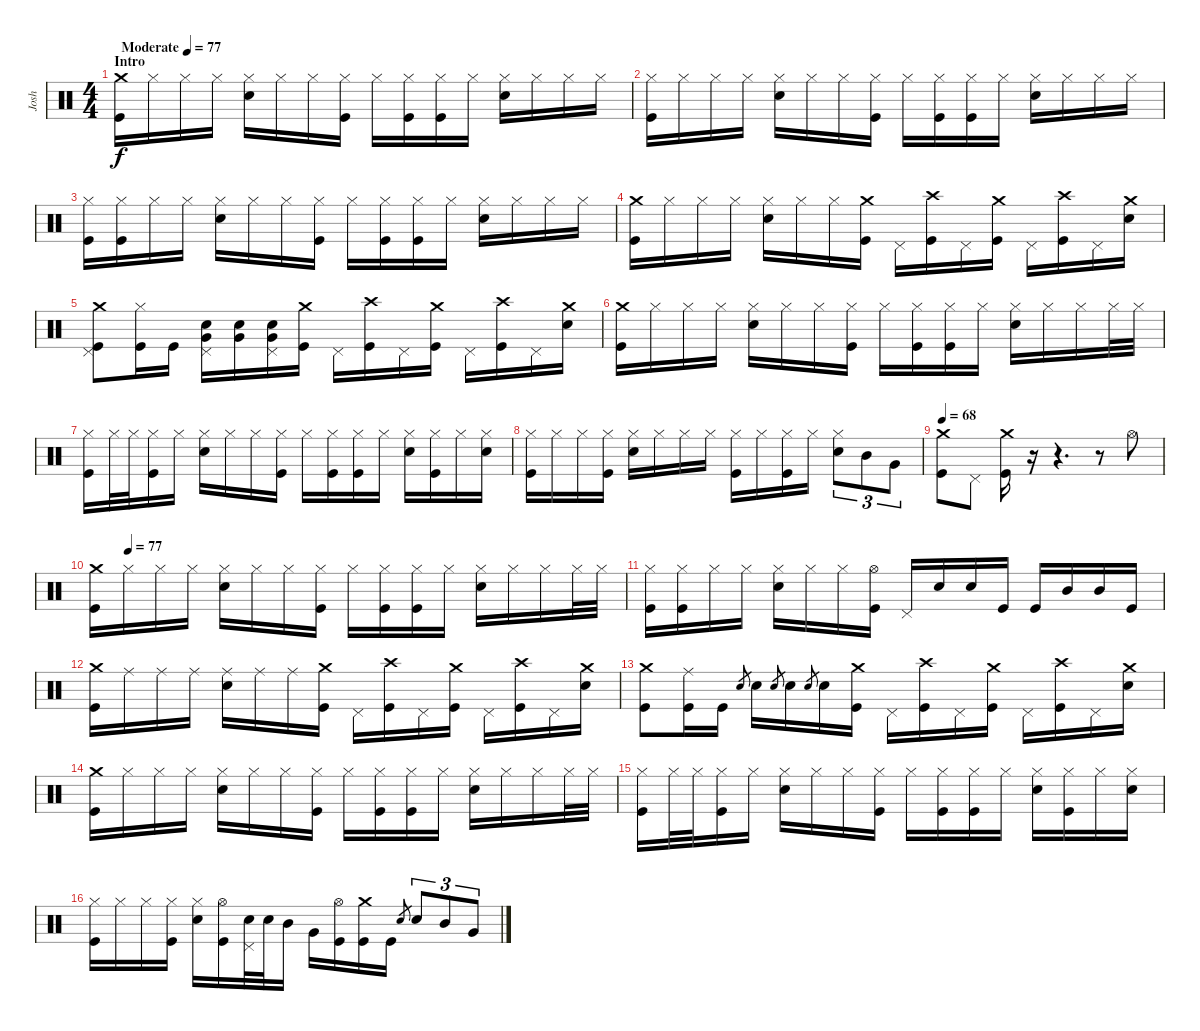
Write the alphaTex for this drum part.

\track ("Josh" "Josh") {instrument percussion}
\staff {score}
\articulation defaults
\ts (4 4)
\section ("" "Intro")
\tempo (77 "Moderate")
\clef neutral
\ks c
("Crash medium (hit)" "Kick (hit)").16{dy f} "Hi-Hat (closed)".16 "Hi-Hat (closed)".16 "Hi-Hat (closed)".16 ("Hi-Hat (closed)" "Snare (hit) 2").16 "Hi-Hat (closed)".16 "Hi-Hat (closed)".16 ("Hi-Hat (closed)" "Kick (hit)").16 "Hi-Hat (closed)".16 ("Hi-Hat (closed)" "Kick (hit)").16 ("Hi-Hat (closed)" "Kick (hit)").16 "Hi-Hat (closed)".16 ("Hi-Hat (closed)" "Snare (hit) 2").16 "Hi-Hat (closed)".16 "Hi-Hat (closed)".16 "Hi-Hat (closed)".16 |
("Hi-Hat (closed)" "Kick (hit)").16 "Hi-Hat (closed)".16 "Hi-Hat (closed)".16 "Hi-Hat (closed)".16 ("Hi-Hat (closed)" "Snare (hit) 2").16 "Hi-Hat (closed)".16 "Hi-Hat (closed)".16 ("Hi-Hat (closed)" "Kick (hit)").16 "Hi-Hat (closed)".16 ("Hi-Hat (closed)" "Kick (hit)").16 ("Hi-Hat (closed)" "Kick (hit)").16 "Hi-Hat (closed)".16 ("Hi-Hat (closed)" "Snare (hit) 2").16 "Hi-Hat (closed)".16 "Hi-Hat (closed)".16 "Hi-Hat (closed)".16 |
("Hi-Hat (closed)" "Kick (hit)").16 ("Hi-Hat (closed)" "Kick (hit)").16 "Hi-Hat (closed)".16 "Hi-Hat (closed)".16 ("Hi-Hat (closed)" "Snare (hit) 2").16 "Hi-Hat (closed)".16 "Hi-Hat (closed)".16 ("Hi-Hat (closed)" "Kick (hit)").16 "Hi-Hat (closed)".16 ("Hi-Hat (closed)" "Kick (hit)").16 ("Hi-Hat (closed)" "Kick (hit)").16 "Hi-Hat (closed)".16 ("Hi-Hat (closed)" "Snare (hit) 2").16 "Hi-Hat (closed)".16 "Hi-Hat (closed)".16 "Hi-Hat (closed)".16 |
("Crash medium (hit)" "Kick (hit)").16 "Hi-Hat (closed)".16 "Hi-Hat (closed)".16 "Hi-Hat (closed)".16 ("Hi-Hat (closed)" "Snare (hit) 2").16 "Hi-Hat (closed)".16 "Hi-Hat (closed)".16 ("Crash medium (hit)" "Kick (hit)").16 "Pedal Hi-Hat (hit)".16 ("Crash high (hit)" "Kick (hit)").16 "Pedal Hi-Hat (hit)".16 ("Crash medium (hit)" "Kick (hit)").16 "Pedal Hi-Hat (hit)".16 ("Crash high (hit)" "Kick (hit)").16 "Pedal Hi-Hat (hit)".16 ("Crash medium (hit)" "Snare (hit) 2").16 |
("Crash medium (hit)" "Kick (hit)" "Pedal Hi-Hat (hit)").8 ("Hi-Hat (closed)" "Kick (hit)").16 "Kick (hit)".16 ("Very Low Tom (hit)" "Snare (hit) 2" "Pedal Hi-Hat (hit)").16 ("Very Low Tom (hit)" "Snare (hit) 2").16 ("Very Low Tom (hit)" "Snare (hit) 2" "Pedal Hi-Hat (hit)").16 ("Crash medium (hit)" "Kick (hit)").16 "Pedal Hi-Hat (hit)".16 ("Crash high (hit)" "Kick (hit)").16 "Pedal Hi-Hat (hit)".16 ("Crash medium (hit)" "Kick (hit)").16 "Pedal Hi-Hat (hit)".16 ("Crash high (hit)" "Kick (hit)").16 "Pedal Hi-Hat (hit)".16 ("Crash medium (hit)" "Snare (hit) 2").16 |
("Crash medium (hit)" "Kick (hit)").16 "Hi-Hat (closed)".16 "Hi-Hat (closed)".16 "Hi-Hat (closed)".16 ("Hi-Hat (closed)" "Snare (hit) 2").16 "Hi-Hat (closed)".16 "Hi-Hat (closed)".16 ("Hi-Hat (closed)" "Kick (hit)").16 "Hi-Hat (closed)".16 ("Hi-Hat (closed)" "Kick (hit)").16 ("Hi-Hat (closed)" "Kick (hit)").16 "Hi-Hat (closed)".16 ("Hi-Hat (closed)" "Snare (hit) 2").16 "Hi-Hat (closed)".16 "Hi-Hat (closed)".16 "Hi-Hat (closed)".32 "Hi-Hat (closed)".32 |
("Hi-Hat (closed)" "Kick (hit)").16 "Hi-Hat (closed)".32 "Hi-Hat (closed)".32 ("Hi-Hat (closed)" "Kick (hit)").16 "Hi-Hat (closed)".16 ("Hi-Hat (closed)" "Snare (hit) 2").16 "Hi-Hat (closed)".16 "Hi-Hat (closed)".16 ("Hi-Hat (closed)" "Kick (hit)").16 "Hi-Hat (closed)".16 ("Hi-Hat (closed)" "Kick (hit)").16 ("Hi-Hat (closed)" "Kick (hit)").16 "Hi-Hat (closed)".16 ("Hi-Hat (closed)" "Snare (hit) 2").16 ("Hi-Hat (closed)" "Kick (hit)").16 "Hi-Hat (closed)".16 ("Hi-Hat (closed)" "Snare (hit) 2").16 |
("Hi-Hat (closed)" "Kick (hit)").16 "Hi-Hat (closed)".16 "Hi-Hat (closed)".16 ("Hi-Hat (closed)" "Kick (hit)").16 ("Hi-Hat (closed)" "Snare (hit) 2").16 "Hi-Hat (closed)".16 "Hi-Hat (closed)".16 "Hi-Hat (closed)".16 ("Hi-Hat (closed)" "Kick (hit)").16 "Hi-Hat (closed)".16 ("Hi-Hat (closed)" "Kick (hit)").16 "Hi-Hat (closed)".16 ("Hi-Hat (closed)" "Snare (hit) 2").8{tu (3 2)} "Mid Tom (hit)".8{tu (3 2)} "Very Low Tom (hit)".8{tu (3 2)} |
\tempo 68
("Crash medium (hit)" "Kick (hit)").8 "Pedal Hi-Hat (hit)".8 ("Crash medium (hit)" "Kick (hit)").16 r.16 r.4{d} r.8 "Hi-Hat (open)".8 |
\tempo (77 0.0625)
("Crash medium (hit)" "Kick (hit)").16 "Hi-Hat (closed)".16 "Hi-Hat (closed)".16 "Hi-Hat (closed)".16 ("Hi-Hat (closed)" "Snare (hit) 2").16 "Hi-Hat (closed)".16 "Hi-Hat (closed)".16 ("Hi-Hat (closed)" "Kick (hit)").16 "Hi-Hat (closed)".16 ("Hi-Hat (closed)" "Kick (hit)").16 ("Hi-Hat (closed)" "Kick (hit)").16 "Hi-Hat (closed)".16 ("Hi-Hat (closed)" "Snare (hit) 2").16 "Hi-Hat (closed)".16 "Hi-Hat (closed)".16 "Hi-Hat (closed)".32 "Hi-Hat (closed)".32 |
("Hi-Hat (closed)" "Kick (hit)").16 ("Hi-Hat (closed)" "Kick (hit)").16 "Hi-Hat (closed)".16 "Hi-Hat (closed)".16 ("Hi-Hat (closed)" "Snare (hit) 2").16 "Hi-Hat (closed)".16 "Hi-Hat (closed)".16 ("Hi-Hat (open)" "Kick (hit)").16 "Pedal Hi-Hat (hit)".16 "Snare (hit) 2".16 "Snare (hit) 2".16 "Kick (hit)".16 "Kick (hit)".16 "Mid Tom (hit)".16 "Mid Tom (hit)".16 "Kick (hit)".16 |
("Crash medium (hit)" "Kick (hit)").16 "Ride (middle)".16 "Ride (middle)".16 "Ride (middle)".16 ("Ride (middle)" "Snare (hit) 2").16 "Ride (middle)".16 "Ride (middle)".16 ("Crash medium (hit)" "Kick (hit)").16 "Pedal Hi-Hat (hit)".16 ("Crash high (hit)" "Kick (hit)").16 "Pedal Hi-Hat (hit)".16 ("Crash medium (hit)" "Kick (hit)").16 "Pedal Hi-Hat (hit)".16 ("Crash high (hit)" "Kick (hit)").16 "Pedal Hi-Hat (hit)".16 ("Crash medium (hit)" "Snare (hit) 2").16 |
("Crash medium (hit)" "Kick (hit)").8 ("Ride (middle)" "Kick (hit)").16 "Kick (hit)".16 "Snare (hit) 2".8{gr} "Snare (hit) 2".16 "Snare (hit) 2".8{gr} "Snare (hit) 2".16 "Snare (hit) 2".8{gr} "Snare (hit) 2".16 ("Crash medium (hit)" "Kick (hit)").16 "Pedal Hi-Hat (hit)".16 ("Crash high (hit)" "Kick (hit)").16 "Pedal Hi-Hat (hit)".16 ("Crash medium (hit)" "Kick (hit)").16 "Pedal Hi-Hat (hit)".16 ("Crash high (hit)" "Kick (hit)").16 "Pedal Hi-Hat (hit)".16 ("Crash medium (hit)" "Snare (hit) 2").16 |
("Crash medium (hit)" "Kick (hit)").16 "Hi-Hat (closed)".16 "Hi-Hat (closed)".16 "Hi-Hat (closed)".16 ("Hi-Hat (closed)" "Snare (hit) 2").16 "Hi-Hat (closed)".16 "Hi-Hat (closed)".16 ("Hi-Hat (closed)" "Kick (hit)").16 "Hi-Hat (closed)".16 ("Hi-Hat (closed)" "Kick (hit)").16 ("Hi-Hat (closed)" "Kick (hit)").16 "Hi-Hat (closed)".16 ("Hi-Hat (closed)" "Snare (hit) 2").16 "Hi-Hat (closed)".16 "Hi-Hat (closed)".16 "Hi-Hat (closed)".32 "Hi-Hat (closed)".32 |
("Hi-Hat (closed)" "Kick (hit)").16 "Hi-Hat (closed)".32 "Hi-Hat (closed)".32 ("Hi-Hat (closed)" "Kick (hit)").16 "Hi-Hat (closed)".16 ("Hi-Hat (closed)" "Snare (hit) 2").16 "Hi-Hat (closed)".16 "Hi-Hat (closed)".16 ("Hi-Hat (closed)" "Kick (hit)").16 "Hi-Hat (closed)".16 ("Hi-Hat (closed)" "Kick (hit)").16 ("Hi-Hat (closed)" "Kick (hit)").16 "Hi-Hat (closed)".16 ("Hi-Hat (closed)" "Snare (hit) 2").16 ("Hi-Hat (closed)" "Kick (hit)").16 "Hi-Hat (closed)".16 ("Hi-Hat (closed)" "Snare (hit) 2").16 |
("Hi-Hat (closed)" "Kick (hit)").16 "Hi-Hat (closed)".16 "Hi-Hat (closed)".16 ("Hi-Hat (closed)" "Kick (hit)").16 ("Hi-Hat (closed)" "Snare (hit) 2").16 ("Hi-Hat (open)" "Kick (hit)").16 ("Snare (hit) 2" "Pedal Hi-Hat (hit)").32 "Snare (hit) 2".32 "Mid Tom (hit)".16 "Very Low Tom (hit)".16 ("Hi-Hat (open)" "Kick (hit)").16 ("Crash medium (hit)" "Kick (hit)").16 "Kick (hit)".16 "Snare (hit) 2".8{gr} "Snare (hit) 2".8{tu (3 2)} "Mid Tom (hit)".8{tu (3 2)} "Very Low Tom (hit)".8{tu (3 2)}
